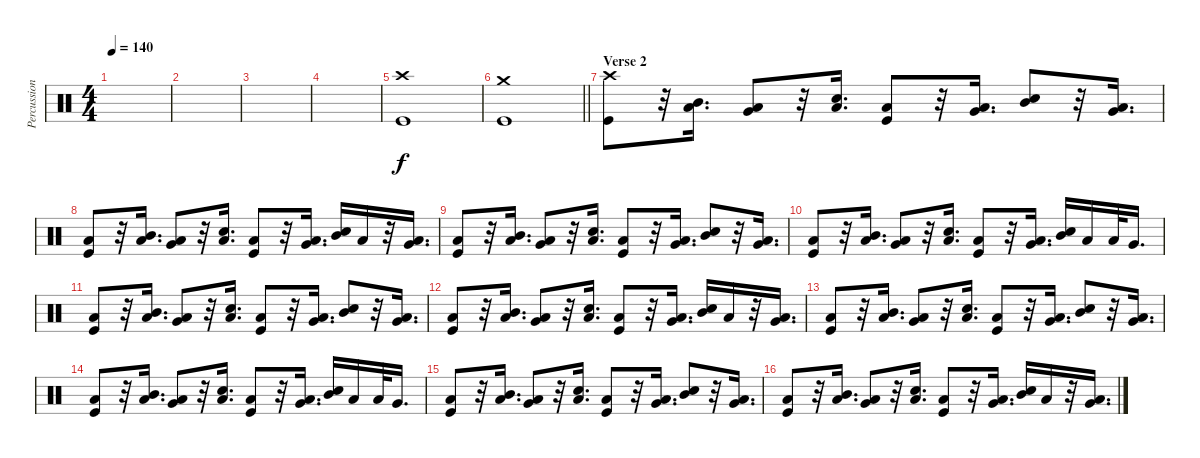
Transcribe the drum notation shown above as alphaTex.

\track ("Percussion" "Percussion") {instrument percussion}
\staff {score}
\articulation defaults
\ts (4 4)
\tempo 140
\clef neutral
\ks c
|
|
|
|
("Crash high (hit)" "Kick (hit)").1 |
\barLineRight lightlight
("Crash medium (hit)" "Kick (hit)").1 |
\section ("" "Verse 2")
("Crash high (hit)" "Kick (hit)").8 r.32 ("Mid Tom (hit)" "Low Tom (hit)").16{d} ("Low Tom (hit)" "Very Low Tom (hit)").8 r.32 ("Low Floor Tom (hit)" "Electric Snare (hit)").16{d} ("Low Floor Tom (hit)" "Kick (hit)").8 r.32 ("Low Tom (hit)" "Very Low Tom (hit)").16{d} ("Mid Tom (hit)" "Electric Snare (hit)").8 r.32 ("Low Tom (hit)" "Very Low Tom (hit)").16{d} |
("Low Tom (hit)" "Kick (hit)").8 r.32 ("Mid Tom (hit)" "Low Tom (hit)").16{d} ("Low Tom (hit)" "Very Low Tom (hit)").8 r.32 ("Low Floor Tom (hit)" "Electric Snare (hit)").16{d} ("Low Floor Tom (hit)" "Kick (hit)").8 r.32 ("Low Tom (hit)" "Very Low Tom (hit)").16{d} ("Mid Tom (hit)" "Electric Snare (hit)").16 "Low Tom (hit)".16 r.32 ("Low Tom (hit)" "Very Low Tom (hit)").16{d} |
("Low Tom (hit)" "Kick (hit)").8 r.32 ("Mid Tom (hit)" "Low Tom (hit)").16{d} ("Low Tom (hit)" "Very Low Tom (hit)").8 r.32 ("Low Floor Tom (hit)" "Electric Snare (hit)").16{d} ("Low Floor Tom (hit)" "Kick (hit)").8 r.32 ("Low Tom (hit)" "Very Low Tom (hit)").16{d} ("Mid Tom (hit)" "Electric Snare (hit)").8 r.32 ("Low Tom (hit)" "Very Low Tom (hit)").16{d} |
("Low Tom (hit)" "Kick (hit)").8 r.32 ("Mid Tom (hit)" "Low Tom (hit)").16{d} ("Low Tom (hit)" "Very Low Tom (hit)").8 r.32 ("Low Floor Tom (hit)" "Electric Snare (hit)").16{d} ("Low Floor Tom (hit)" "Kick (hit)").8 r.32 ("Low Tom (hit)" "Very Low Tom (hit)").16{d} ("Mid Tom (hit)" "Electric Snare (hit)").16 "Low Tom (hit)".16 "Low Tom (hit)".32 "Very Low Tom (hit)".16{d} |
("Low Tom (hit)" "Kick (hit)").8 r.32 ("Mid Tom (hit)" "Low Tom (hit)").16{d} ("Low Tom (hit)" "Very Low Tom (hit)").8 r.32 ("Low Floor Tom (hit)" "Electric Snare (hit)").16{d} ("Low Floor Tom (hit)" "Kick (hit)").8 r.32 ("Low Tom (hit)" "Very Low Tom (hit)").16{d} ("Mid Tom (hit)" "Electric Snare (hit)").8 r.32 ("Low Tom (hit)" "Very Low Tom (hit)").16{d} |
("Low Tom (hit)" "Kick (hit)").8 r.32 ("Mid Tom (hit)" "Low Tom (hit)").16{d} ("Low Tom (hit)" "Very Low Tom (hit)").8 r.32 ("Low Floor Tom (hit)" "Electric Snare (hit)").16{d} ("Low Floor Tom (hit)" "Kick (hit)").8 r.32 ("Low Tom (hit)" "Very Low Tom (hit)").16{d} ("Mid Tom (hit)" "Electric Snare (hit)").16 "Low Tom (hit)".16 r.32 ("Low Tom (hit)" "Very Low Tom (hit)").16{d} |
("Low Tom (hit)" "Kick (hit)").8 r.32 ("Mid Tom (hit)" "Low Tom (hit)").16{d} ("Low Tom (hit)" "Very Low Tom (hit)").8 r.32 ("Low Floor Tom (hit)" "Electric Snare (hit)").16{d} ("Low Floor Tom (hit)" "Kick (hit)").8 r.32 ("Low Tom (hit)" "Very Low Tom (hit)").16{d} ("Mid Tom (hit)" "Electric Snare (hit)").8 r.32 ("Low Tom (hit)" "Very Low Tom (hit)").16{d} |
("Low Tom (hit)" "Kick (hit)").8 r.32 ("Mid Tom (hit)" "Low Tom (hit)").16{d} ("Low Tom (hit)" "Very Low Tom (hit)").8 r.32 ("Low Floor Tom (hit)" "Electric Snare (hit)").16{d} ("Low Floor Tom (hit)" "Kick (hit)").8 r.32 ("Low Tom (hit)" "Very Low Tom (hit)").16{d} ("Mid Tom (hit)" "Electric Snare (hit)").16 "Low Tom (hit)".16 "Low Tom (hit)".32 "Very Low Tom (hit)".16{d} |
("Low Tom (hit)" "Kick (hit)").8 r.32 ("Mid Tom (hit)" "Low Tom (hit)").16{d} ("Low Tom (hit)" "Very Low Tom (hit)").8 r.32 ("Low Floor Tom (hit)" "Electric Snare (hit)").16{d} ("Low Floor Tom (hit)" "Kick (hit)").8 r.32 ("Low Tom (hit)" "Very Low Tom (hit)").16{d} ("Mid Tom (hit)" "Electric Snare (hit)").8 r.32 ("Low Tom (hit)" "Very Low Tom (hit)").16{d} |
("Low Tom (hit)" "Kick (hit)").8 r.32 ("Mid Tom (hit)" "Low Tom (hit)").16{d} ("Low Tom (hit)" "Very Low Tom (hit)").8 r.32 ("Low Floor Tom (hit)" "Electric Snare (hit)").16{d} ("Low Floor Tom (hit)" "Kick (hit)").8 r.32 ("Low Tom (hit)" "Very Low Tom (hit)").16{d} ("Mid Tom (hit)" "Electric Snare (hit)").16 "Low Tom (hit)".16 r.32 ("Low Tom (hit)" "Very Low Tom (hit)").16{d}
